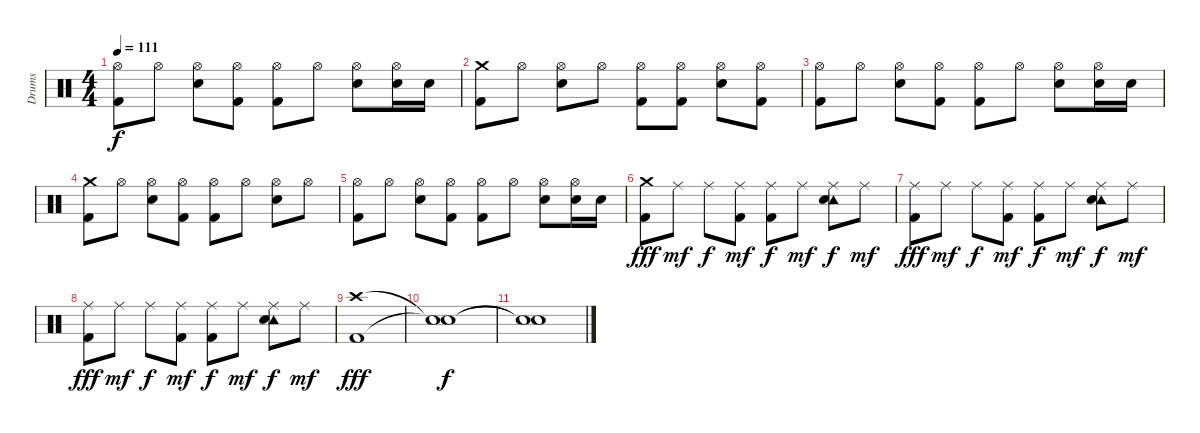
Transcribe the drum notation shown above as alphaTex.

\track ("Drums" "Drums") {instrument percussion}
\staff {score}
\articulation defaults
\ts (4 4)
\tempo 111
\clef neutral
\ks c
("Hi-Hat (open)" "Kick (hit) 2").8{dy f} "Hi-Hat (open)".8 ("Hi-Hat (open)" "Snare (hit) 2").8 ("Hi-Hat (open)" "Kick (hit) 2").8 ("Hi-Hat (open)" "Kick (hit) 2").8 "Hi-Hat (open)".8 ("Hi-Hat (open)" "Snare (hit) 2").8 ("Hi-Hat (open)" "Snare (hit) 2").16 "Snare (hit) 2".16 |
("Crash medium (hit)" "Kick (hit) 2").8 "Hi-Hat (open)".8 ("Hi-Hat (open)" "Snare (hit) 2").8 "Hi-Hat (open)".8 ("Hi-Hat (open)" "Kick (hit) 2").8 ("Hi-Hat (open)" "Kick (hit) 2").8 ("Hi-Hat (open)" "Snare (hit) 2").8 ("Hi-Hat (open)" "Kick (hit) 2").8 |
("Hi-Hat (open)" "Kick (hit) 2").8 "Hi-Hat (open)".8 ("Hi-Hat (open)" "Snare (hit) 2").8 ("Hi-Hat (open)" "Kick (hit) 2").8 ("Hi-Hat (open)" "Kick (hit) 2").8 "Hi-Hat (open)".8 ("Hi-Hat (open)" "Snare (hit) 2").8 ("Hi-Hat (open)" "Snare (hit) 2").16 "Snare (hit) 2".16 |
("Crash medium (hit)" "Kick (hit) 2").8 "Hi-Hat (open)".8 ("Hi-Hat (open)" "Snare (hit) 2").8 ("Hi-Hat (open)" "Kick (hit) 2").8 ("Hi-Hat (open)" "Kick (hit) 2").8 "Hi-Hat (open)".8 ("Hi-Hat (open)" "Snare (hit) 2").8 "Hi-Hat (open)".8 |
("Hi-Hat (open)" "Kick (hit) 2").8 "Hi-Hat (open)".8 ("Hi-Hat (open)" "Snare (hit) 2").8 ("Hi-Hat (open)" "Kick (hit) 2").8 ("Hi-Hat (open)" "Kick (hit) 2").8 "Hi-Hat (open)".8 ("Hi-Hat (open)" "Snare (hit) 2").8 ("Hi-Hat (open)" "Snare (hit) 2").16 "Snare (hit) 2".16 |
("Crash medium (hit)" "Kick (hit) 2").8{dy fff} "Ride (middle)".8{dy mf} "Ride (middle)".8{dy f} ("Ride (middle)" "Kick (hit) 2").8{dy mf} ("Ride (middle)" "Kick (hit) 2").8{dy f} "Ride (middle)".8{dy mf} ("Ride (middle)" "Tambourine (hit)" "Snare (hit) 2").8{dy f} "Ride (middle)".8{dy mf} |
("Ride (middle)" "Kick (hit) 2").8{dy fff} "Ride (middle)".8{dy mf} "Ride (middle)".8{dy f} ("Ride (middle)" "Kick (hit) 2").8{dy mf} ("Ride (middle)" "Kick (hit) 2").8{dy f} "Ride (middle)".8{dy mf} ("Ride (middle)" "Tambourine (hit)" "Snare (hit) 2").8{dy f} "Ride (middle)".8{dy mf} |
("Ride (middle)" "Kick (hit) 2").8{dy fff} "Ride (middle)".8{dy mf} "Ride (middle)".8{dy f} ("Ride (middle)" "Kick (hit) 2").8{dy mf} ("Ride (middle)" "Kick (hit) 2").8{dy f} "Ride (middle)".8{dy mf} ("Ride (middle)" "Tambourine (hit)" "Snare (hit) 2").8{dy f} "Ride (middle)".8{dy mf} |
("Crash high (hit)" "Kick (hit) 2").1{dy fff} |
("Snare (hit)"{t} "Snare (hit)"{t}).1{dy f} |
("Snare (hit)"{t} "Snare (hit)"{t}).1
